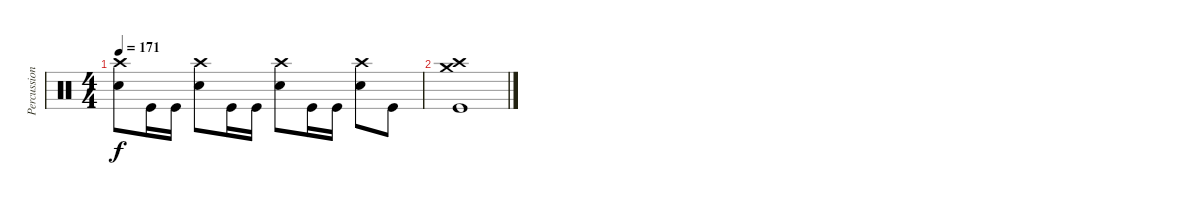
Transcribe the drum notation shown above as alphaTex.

\track ("Percussion" "Percussion") {instrument percussion}
\staff {score}
\articulation defaults
\ts (4 4)
\tempo 171
\clef neutral
\ks c
("Crash high (hit)" "Electric Snare (hit)").8{dy f} "Kick (hit)".16 "Kick (hit)".16 ("Crash high (hit)" "Electric Snare (hit)").8 "Kick (hit)".16 "Kick (hit)".16 ("Crash high (hit)" "Electric Snare (hit)").8 "Kick (hit)".16 "Kick (hit)".16 ("Crash high (hit)" "Electric Snare (hit)").8 "Kick (hit)".8 |
("Crash medium (hit)" "Crash high (hit)" "Kick (hit)").1
